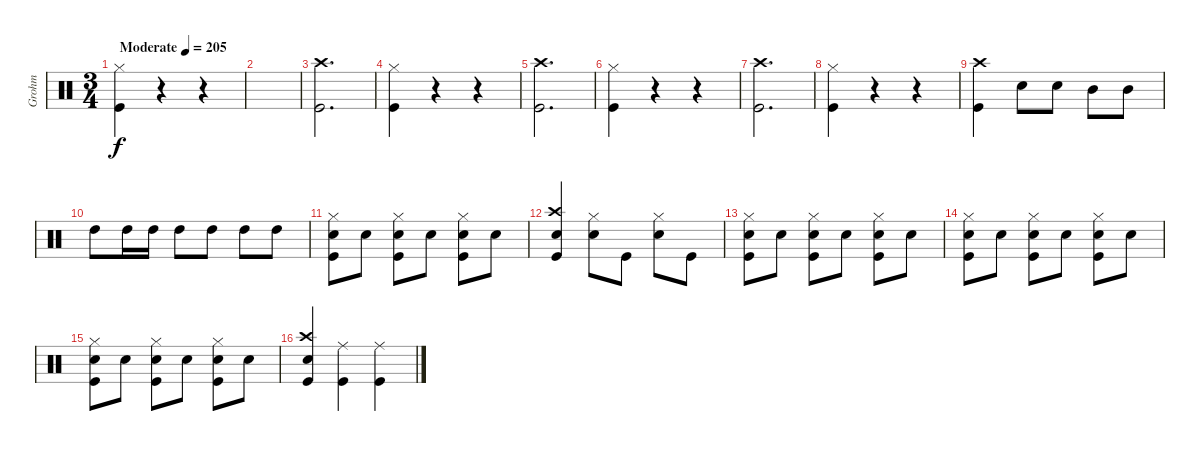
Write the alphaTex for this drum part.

\track ("Grohm" "Grohm") {instrument percussion}
\staff {score}
\articulation defaults
\ts (3 4)
\tempo (205 "Moderate")
\clef neutral
\ks c
("Hi-Hat (closed)" "Kick (hit)").4{dy f} r.4 r.4 |
|
("Crash high (hit)" "Kick (hit)").2{d} |
("Hi-Hat (closed)" "Kick (hit)").4 r.4 r.4 |
("Crash high (hit)" "Kick (hit)").2{d} |
("Hi-Hat (closed)" "Kick (hit)").4 r.4 r.4 |
("Crash high (hit)" "Kick (hit)").2{d} |
("Hi-Hat (closed)" "Kick (hit)").4 r.4 r.4 |
("Crash high (hit)" "Kick (hit)").4 "Snare (hit) 2".8 "Snare (hit) 2".8 "Mid Tom (hit)".8 "Mid Tom (hit)".8 |
"High Tom (hit)".8 "High Tom (hit)".16 "High Tom (hit)".16 "High Tom (hit)".8 "High Tom (hit)".8 "High Tom (hit)".8 "High Tom (hit)".8 |
("Hi-Hat (closed)" "Snare (hit) 2" "Kick (hit)").8 "Snare (hit) 2".8 ("Hi-Hat (closed)" "Snare (hit) 2" "Kick (hit)").8 "Snare (hit) 2".8 ("Hi-Hat (closed)" "Snare (hit) 2" "Kick (hit)").8 "Snare (hit) 2".8 |
("Crash high (hit)" "Snare (hit) 2" "Kick (hit)").4 ("Hi-Hat (closed)" "Snare (hit) 2").8 "Kick (hit)".8 ("Hi-Hat (closed)" "Snare (hit) 2").8 "Kick (hit)".8 |
("Hi-Hat (closed)" "Snare (hit) 2" "Kick (hit)").8 "Snare (hit) 2".8 ("Hi-Hat (closed)" "Snare (hit) 2" "Kick (hit)").8 "Snare (hit) 2".8 ("Hi-Hat (closed)" "Snare (hit) 2" "Kick (hit)").8 "Snare (hit) 2".8 |
("Hi-Hat (closed)" "Snare (hit) 2" "Kick (hit)").8 "Snare (hit) 2".8 ("Hi-Hat (closed)" "Snare (hit) 2" "Kick (hit)").8 "Snare (hit) 2".8 ("Hi-Hat (closed)" "Snare (hit) 2" "Kick (hit)").8 "Snare (hit) 2".8 |
("Hi-Hat (closed)" "Snare (hit) 2" "Kick (hit)").8 "Snare (hit) 2".8 ("Hi-Hat (closed)" "Snare (hit) 2" "Kick (hit)").8 "Snare (hit) 2".8 ("Hi-Hat (closed)" "Snare (hit) 2" "Kick (hit)").8 "Snare (hit) 2".8 |
("Crash high (hit)" "Snare (hit) 2" "Kick (hit)").4 ("Ride (middle)" "Kick (hit)").4 ("Ride (middle)" "Kick (hit)").4
